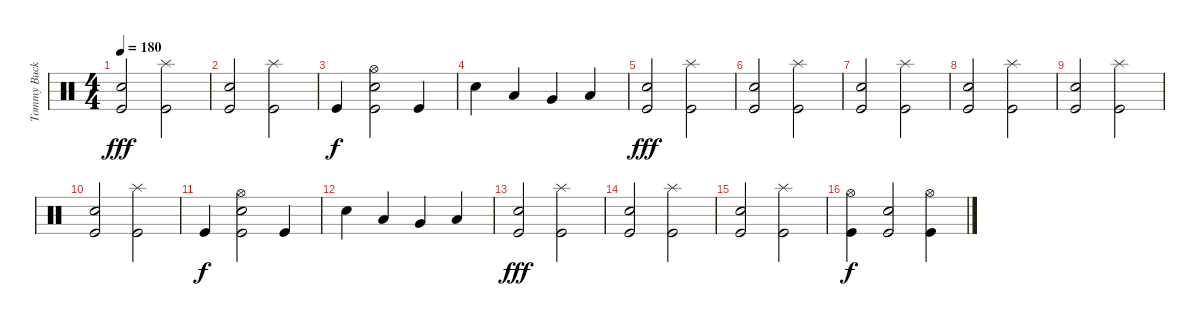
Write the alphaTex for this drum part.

\track ("Tommy Buckly (drums)" "Tommy Buck") {instrument percussion}
\staff {score}
\articulation defaults
\ts (4 4)
\tempo 180
\clef neutral
\ks c
("Electric Snare (hit)" "Kick (hit)").2{dy fff} ("Splash (hit)" "Kick (hit)").2 |
("Electric Snare (hit)" "Kick (hit)").2 ("Splash (hit)" "Kick (hit)").2 |
"Kick (hit)".4{dy f} ("Hi-Hat (open)" "Electric Snare (hit)" "Kick (hit)").2 "Kick (hit)".4 |
"Electric Snare (hit)".4 "Low Tom (hit)".4 "Very Low Tom (hit)".4 "Low Floor Tom (hit)".4 |
("Electric Snare (hit)" "Kick (hit)").2{dy fff} ("Splash (hit)" "Kick (hit)").2 |
("Electric Snare (hit)" "Kick (hit)").2 ("Splash (hit)" "Kick (hit)").2 |
("Electric Snare (hit)" "Kick (hit)").2 ("Splash (hit)" "Kick (hit)").2 |
("Electric Snare (hit)" "Kick (hit)").2 ("Splash (hit)" "Kick (hit)").2 |
("Electric Snare (hit)" "Kick (hit)").2 ("Splash (hit)" "Kick (hit)").2 |
("Electric Snare (hit)" "Kick (hit)").2 ("Splash (hit)" "Kick (hit)").2 |
"Kick (hit)".4{dy f} ("Hi-Hat (open)" "Electric Snare (hit)" "Kick (hit)").2 "Kick (hit)".4 |
"Electric Snare (hit)".4 "Low Tom (hit)".4 "Very Low Tom (hit)".4 "Low Floor Tom (hit)".4 |
("Electric Snare (hit)" "Kick (hit)").2{dy fff} ("Splash (hit)" "Kick (hit)").2 |
("Electric Snare (hit)" "Kick (hit)").2 ("Splash (hit)" "Kick (hit)").2 |
("Electric Snare (hit)" "Kick (hit)").2 ("Splash (hit)" "Kick (hit)").2 |
("Hi-Hat (open)" "Kick (hit)").4{dy f} ("Electric Snare (hit)" "Kick (hit)").2 ("Hi-Hat (open)" "Kick (hit)").4
